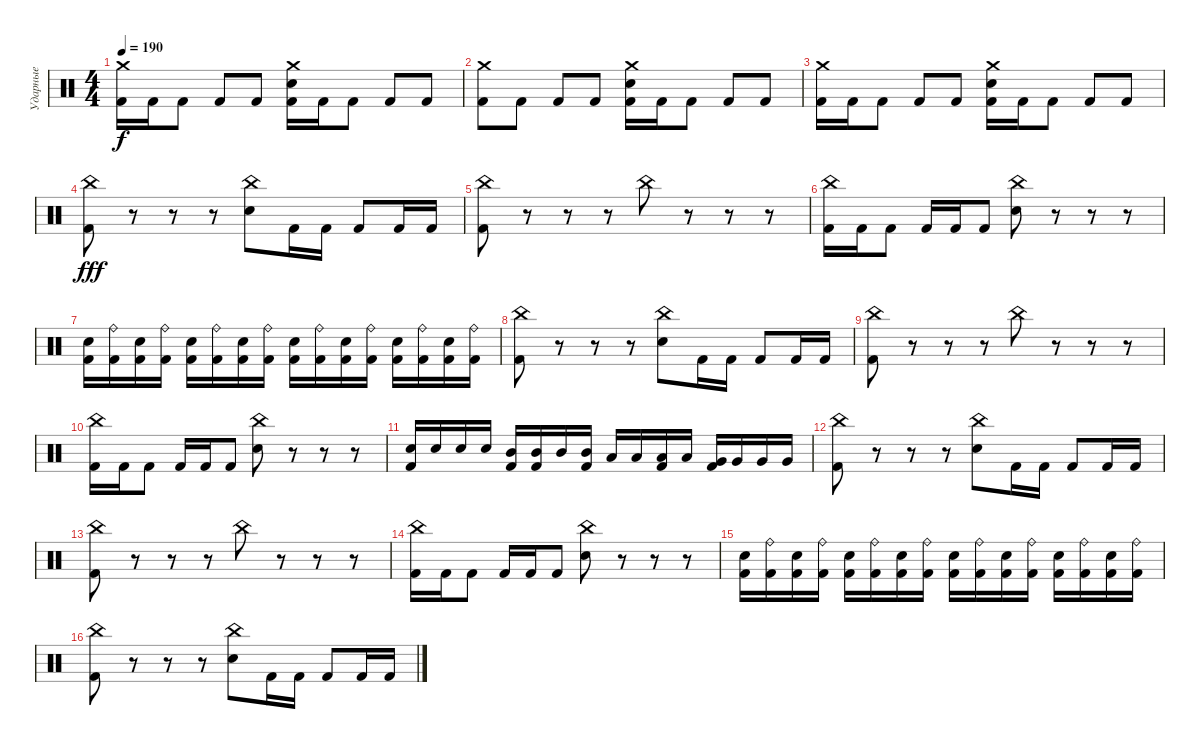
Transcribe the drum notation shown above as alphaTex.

\track ("Ударные" "Ударные") {instrument percussion}
\staff {score}
\articulation defaults
\ts (4 4)
\tempo 190
\clef neutral
\ks c
("Crash medium (hit)" "Kick (hit) 2").16{dy f} "Kick (hit) 2".16 "Kick (hit) 2".8 "Kick (hit) 2".8 "Kick (hit) 2".8 ("Crash medium (hit)" "Electric Snare (hit)" "Kick (hit) 2").16 "Kick (hit) 2".16 "Kick (hit) 2".8 "Kick (hit) 2".8 "Kick (hit) 2".8 |
("Crash medium (hit)" "Kick (hit) 2").8 "Kick (hit) 2".8 "Kick (hit) 2".8 "Kick (hit) 2".8 ("Crash medium (hit)" "Electric Snare (hit)" "Kick (hit) 2").16 "Kick (hit) 2".16 "Kick (hit) 2".8 "Kick (hit) 2".8 "Kick (hit) 2".8 |
("Crash medium (hit)" "Kick (hit) 2").16 "Kick (hit) 2".16 "Kick (hit) 2".8 "Kick (hit) 2".8 "Kick (hit) 2".8 ("Crash medium (hit)" "Electric Snare (hit)" "Kick (hit) 2").16 "Kick (hit) 2".16 "Kick (hit) 2".8 "Kick (hit) 2".8 "Kick (hit) 2".8 |
("China (hit)" "Kick (hit) 2").8{dy fff} r.8 r.8 r.8 ("China (hit)" "Electric Snare (hit)").8 "Kick (hit) 2".16 "Kick (hit) 2".16 "Kick (hit) 2".8 "Kick (hit) 2".16 "Kick (hit) 2".16 |
("China (hit)" "Kick (hit) 2").8 r.8 r.8 r.8 "China (hit)".8 r.8 r.8 r.8 |
("China (hit)" "Kick (hit) 2").16 "Kick (hit) 2".16 "Kick (hit) 2".8 "Kick (hit) 2".16 "Kick (hit) 2".16 "Kick (hit) 2".8 ("China (hit)" "Electric Snare (hit)").8 r.8 r.8 r.8 |
("Snare (hit) 2" "Kick (hit) 2").16 ("Ride (bell)" "Kick (hit) 2").16 ("Snare (hit) 2" "Kick (hit) 2").16 ("Ride (bell)" "Kick (hit) 2").16 ("Snare (hit) 2" "Kick (hit) 2").16 ("Ride (bell)" "Kick (hit) 2").16 ("Snare (hit) 2" "Kick (hit) 2").16 ("Ride (bell)" "Kick (hit) 2").16 ("Snare (hit) 2" "Kick (hit) 2").16 ("Ride (bell)" "Kick (hit) 2").16 ("Snare (hit) 2" "Kick (hit) 2").16 ("Ride (bell)" "Kick (hit) 2").16 ("Snare (hit) 2" "Kick (hit) 2").16 ("Ride (bell)" "Kick (hit) 2").16 ("Snare (hit) 2" "Kick (hit) 2").16 ("Ride (bell)" "Kick (hit) 2").16 |
("China (hit)" "Kick (hit) 2").8 r.8 r.8 r.8 ("China (hit)" "Electric Snare (hit)").8 "Kick (hit) 2".16 "Kick (hit) 2".16 "Kick (hit) 2".8 "Kick (hit) 2".16 "Kick (hit) 2".16 |
("China (hit)" "Kick (hit) 2").8 r.8 r.8 r.8 "China (hit)".8 r.8 r.8 r.8 |
("China (hit)" "Kick (hit) 2").16 "Kick (hit) 2".16 "Kick (hit) 2".8 "Kick (hit) 2".16 "Kick (hit) 2".16 "Kick (hit) 2".8 ("China (hit)" "Electric Snare (hit)").8 r.8 r.8 r.8 |
("Electric Snare (hit)" "Kick (hit) 2").16 "Electric Snare (hit)".16 "Electric Snare (hit)".16 "Electric Snare (hit)".16 ("Mid Tom (hit)" "Kick (hit) 2").16 ("Mid Tom (hit)" "Kick (hit) 2").16 "Mid Tom (hit)".16 ("Mid Tom (hit)" "Kick (hit) 2").16 "Low Tom (hit)".16 "Low Tom (hit)".16 ("Low Tom (hit)" "Kick (hit) 2").16 "Low Tom (hit)".16 ("Very Low Tom (hit)" "Kick (hit) 2").16 "Very Low Tom (hit)".16 "Very Low Tom (hit)".16 "Very Low Tom (hit)".16 |
("China (hit)" "Kick (hit) 2").8 r.8 r.8 r.8 ("China (hit)" "Electric Snare (hit)").8 "Kick (hit) 2".16 "Kick (hit) 2".16 "Kick (hit) 2".8 "Kick (hit) 2".16 "Kick (hit) 2".16 |
("China (hit)" "Kick (hit) 2").8 r.8 r.8 r.8 "China (hit)".8 r.8 r.8 r.8 |
("China (hit)" "Kick (hit) 2").16 "Kick (hit) 2".16 "Kick (hit) 2".8 "Kick (hit) 2".16 "Kick (hit) 2".16 "Kick (hit) 2".8 ("China (hit)" "Electric Snare (hit)").8 r.8 r.8 r.8 |
("Snare (hit) 2" "Kick (hit) 2").16 ("Ride (bell)" "Kick (hit) 2").16 ("Snare (hit) 2" "Kick (hit) 2").16 ("Ride (bell)" "Kick (hit) 2").16 ("Snare (hit) 2" "Kick (hit) 2").16 ("Ride (bell)" "Kick (hit) 2").16 ("Snare (hit) 2" "Kick (hit) 2").16 ("Ride (bell)" "Kick (hit) 2").16 ("Snare (hit) 2" "Kick (hit) 2").16 ("Ride (bell)" "Kick (hit) 2").16 ("Snare (hit) 2" "Kick (hit) 2").16 ("Ride (bell)" "Kick (hit) 2").16 ("Snare (hit) 2" "Kick (hit) 2").16 ("Ride (bell)" "Kick (hit) 2").16 ("Snare (hit) 2" "Kick (hit) 2").16 ("Ride (bell)" "Kick (hit) 2").16 |
("China (hit)" "Kick (hit) 2").8 r.8 r.8 r.8 ("China (hit)" "Electric Snare (hit)").8 "Kick (hit) 2".16 "Kick (hit) 2".16 "Kick (hit) 2".8 "Kick (hit) 2".16 "Kick (hit) 2".16
